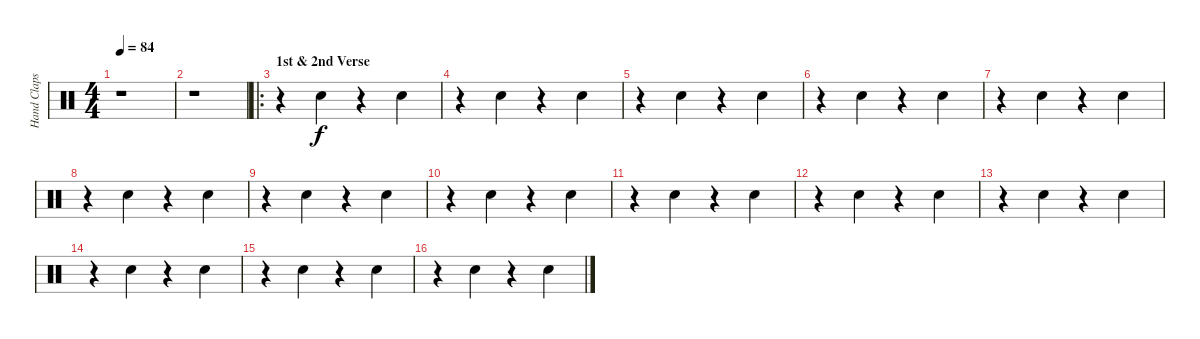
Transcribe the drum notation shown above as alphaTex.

\track ("Hand Claps" "Hand Claps") {instrument percussion}
\staff {score}
\articulation defaults
\ts (4 4)
\tempo 84
\clef neutral
\ks c
r.1{dy f} |
r.1 |
\ro
\section ("" "1st & 2nd Verse")
r.4 "Hand Clap (hit)".4 r.4 "Hand Clap (hit)".4 |
r.4 "Hand Clap (hit)".4 r.4 "Hand Clap (hit)".4 |
r.4 "Hand Clap (hit)".4 r.4 "Hand Clap (hit)".4 |
r.4 "Hand Clap (hit)".4 r.4 "Hand Clap (hit)".4 |
r.4 "Hand Clap (hit)".4 r.4 "Hand Clap (hit)".4 |
r.4 "Hand Clap (hit)".4 r.4 "Hand Clap (hit)".4 |
r.4 "Hand Clap (hit)".4 r.4 "Hand Clap (hit)".4 |
r.4 "Hand Clap (hit)".4 r.4 "Hand Clap (hit)".4 |
r.4 "Hand Clap (hit)".4 r.4 "Hand Clap (hit)".4 |
r.4 "Hand Clap (hit)".4 r.4 "Hand Clap (hit)".4 |
r.4 "Hand Clap (hit)".4 r.4 "Hand Clap (hit)".4 |
r.4 "Hand Clap (hit)".4 r.4 "Hand Clap (hit)".4 |
r.4 "Hand Clap (hit)".4 r.4 "Hand Clap (hit)".4 |
r.4 "Hand Clap (hit)".4 r.4 "Hand Clap (hit)".4
